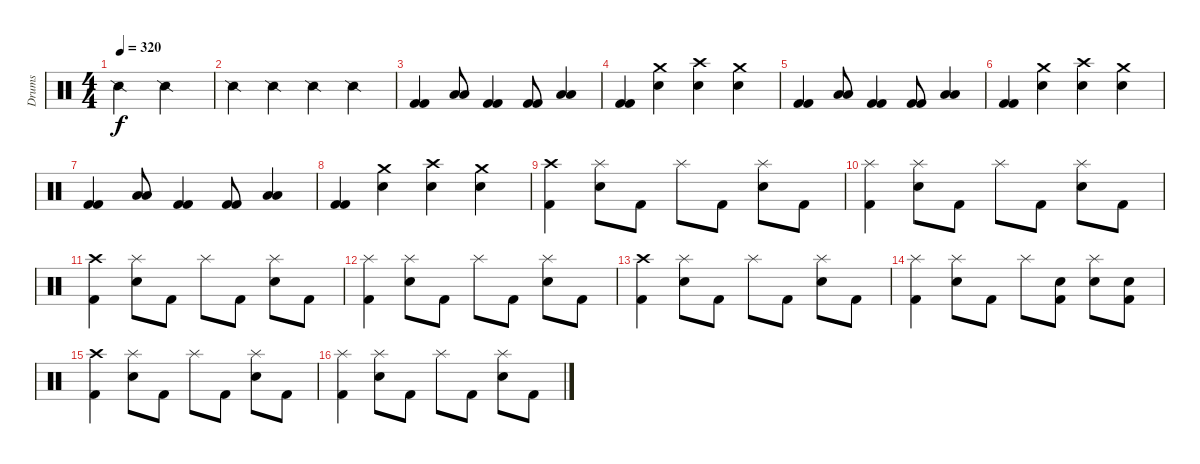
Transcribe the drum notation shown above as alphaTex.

\track ("Drums" "Drums") {instrument percussion}
\staff {score}
\articulation defaults
\ts (4 4)
\tempo 320
\clef neutral
\ks c "Snare (side stick) 2".2{dy f} "Snare (side stick) 2".2
|
"Snare (side stick) 2".4 "Snare (side stick) 2".4 "Snare (side stick) 2".4 "Snare (side stick) 2".4 |
("Kick (hit) 2" "Kick (hit) 2").4 ("Low Tom (hit)" "Low Tom (hit)").8 ("Kick (hit) 2" "Kick (hit) 2").4 ("Kick (hit) 2" "Kick (hit) 2").8 ("Low Tom (hit)" "Low Tom (hit)").4 |
("Kick (hit) 2" "Kick (hit) 2").4 ("Crash medium (hit)" "Electric Snare (hit)").4 ("Crash high (hit)" "Electric Snare (hit)").4 ("Crash medium (hit)" "Electric Snare (hit)").4 |
("Kick (hit) 2" "Kick (hit) 2").4 ("Low Tom (hit)" "Low Tom (hit)").8 ("Kick (hit) 2" "Kick (hit) 2").4 ("Kick (hit) 2" "Kick (hit) 2").8 ("Low Tom (hit)" "Low Tom (hit)").4 |
("Kick (hit) 2" "Kick (hit) 2").4 ("Crash medium (hit)" "Electric Snare (hit)").4 ("Crash high (hit)" "Electric Snare (hit)").4 ("Crash medium (hit)" "Electric Snare (hit)").4 |
("Kick (hit) 2" "Kick (hit) 2").4 ("Low Tom (hit)" "Low Tom (hit)").8 ("Kick (hit) 2" "Kick (hit) 2").4 ("Kick (hit) 2" "Kick (hit) 2").8 ("Low Tom (hit)" "Low Tom (hit)").4 |
("Kick (hit) 2" "Kick (hit) 2").4 ("Crash medium (hit)" "Electric Snare (hit)").4 ("Crash high (hit)" "Electric Snare (hit)").4 ("Crash medium (hit)" "Electric Snare (hit)").4 |
("Crash high (hit)" "Kick (hit) 2").4 ("Splash (hit)" "Electric Snare (hit)").8 "Kick (hit) 2".8 "Splash (hit)".8 "Kick (hit) 2".8 ("Splash (hit)" "Electric Snare (hit)").8 "Kick (hit) 2".8 |
("Splash (hit)" "Kick (hit) 2").4 ("Splash (hit)" "Electric Snare (hit)").8 "Kick (hit) 2".8 "Splash (hit)".8 "Kick (hit) 2".8 ("Splash (hit)" "Electric Snare (hit)").8 "Kick (hit) 2".8 |
("Crash high (hit)" "Kick (hit) 2").4 ("Splash (hit)" "Electric Snare (hit)").8 "Kick (hit) 2".8 "Splash (hit)".8 "Kick (hit) 2".8 ("Splash (hit)" "Electric Snare (hit)").8 "Kick (hit) 2".8 |
("Splash (hit)" "Kick (hit) 2").4 ("Splash (hit)" "Electric Snare (hit)").8 "Kick (hit) 2".8 "Splash (hit)".8 "Kick (hit) 2".8 ("Splash (hit)" "Electric Snare (hit)").8 "Kick (hit) 2".8 |
("Crash high (hit)" "Kick (hit) 2").4 ("Splash (hit)" "Electric Snare (hit)").8 "Kick (hit) 2".8 "Splash (hit)".8 "Kick (hit) 2".8 ("Splash (hit)" "Electric Snare (hit)").8 "Kick (hit) 2".8 |
("Splash (hit)" "Kick (hit) 2").4 ("Splash (hit)" "Electric Snare (hit)").8 "Kick (hit) 2".8 "Splash (hit)".8 ("Electric Snare (hit)" "Kick (hit) 2").8 ("Splash (hit)" "Electric Snare (hit)").8 ("Electric Snare (hit)" "Kick (hit) 2").8 |
("Crash high (hit)" "Kick (hit) 2").4 ("Splash (hit)" "Electric Snare (hit)").8 "Kick (hit) 2".8 "Splash (hit)".8 "Kick (hit) 2".8 ("Splash (hit)" "Electric Snare (hit)").8 "Kick (hit) 2".8 |
("Splash (hit)" "Kick (hit) 2").4 ("Splash (hit)" "Electric Snare (hit)").8 "Kick (hit) 2".8 "Splash (hit)".8 "Kick (hit) 2".8 ("Splash (hit)" "Electric Snare (hit)").8 "Kick (hit) 2".8
